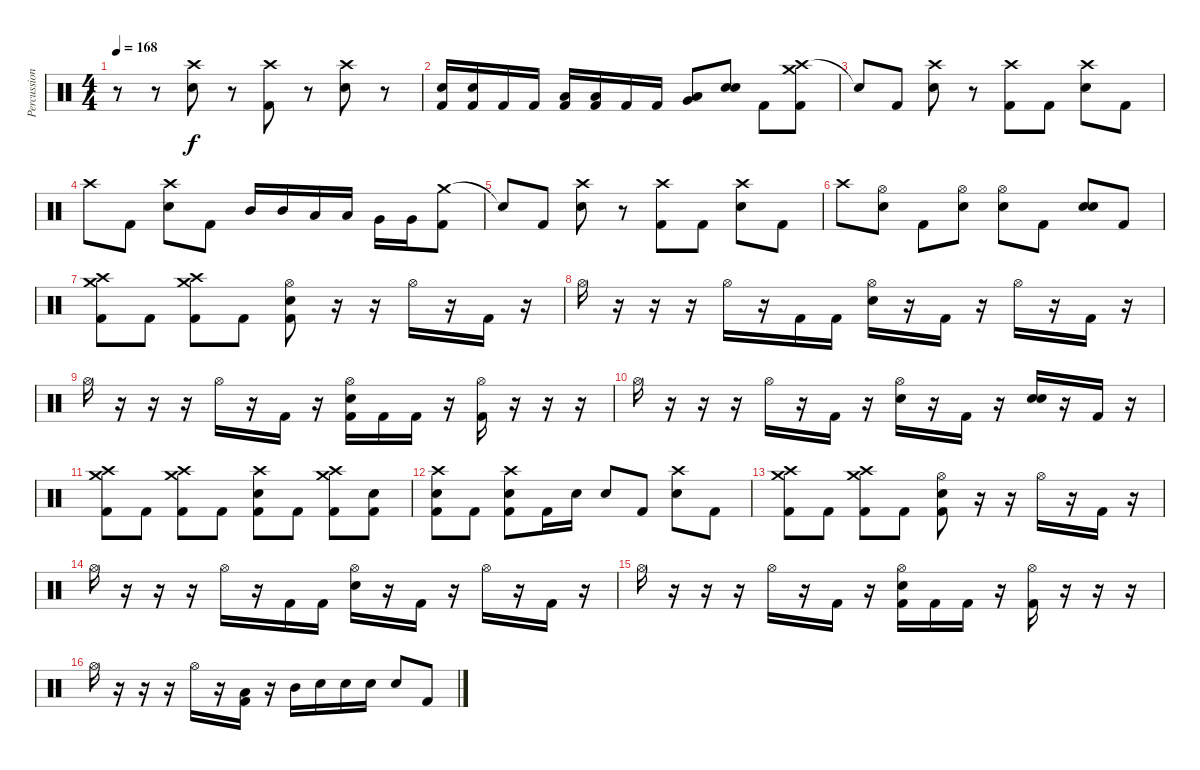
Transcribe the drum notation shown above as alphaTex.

\track ("Percussion" "Percussion") {instrument percussion}
\staff {score}
\articulation defaults
\ts (4 4)
\tempo 168
\clef neutral
\ks c
r.8{dy f} r.8 ("Crash high (hit)" "Electric Snare (hit)").8 r.8 ("Crash high (hit)" "Kick (hit) 2").8 r.8 ("Crash high (hit)" "Electric Snare (hit)").8 r.8 |
("Electric Snare (hit)" "Kick (hit) 2").16 ("Electric Snare (hit)" "Kick (hit) 2").16 "Kick (hit) 2".16 "Kick (hit) 2".16 ("Low Tom (hit)" "Kick (hit) 2").16 ("Low Tom (hit)" "Kick (hit) 2").16 "Kick (hit) 2".16 "Kick (hit) 2".16 ("Low Tom (hit)" "Very Low Tom (hit)").8 ("Electric Snare (hit)" "Electric Snare (hit)").8 "Kick (hit) 2".8 ("Crash high (hit)" "Crash medium (hit)" "Kick (hit) 2").8 |
"Snare (hit)"{t}.8 "Kick (hit) 2".8 ("Crash high (hit)" "Electric Snare (hit)").8 r.8 ("Crash high (hit)" "Kick (hit) 2").8 "Kick (hit) 2".8 ("Crash high (hit)" "Electric Snare (hit)").8 "Kick (hit) 2".8 |
"Crash high (hit)".8 "Kick (hit) 2".8 ("Crash high (hit)" "Electric Snare (hit)").8 "Kick (hit) 2".8 "Mid Tom (hit)".16 "Mid Tom (hit)".16 "Low Tom (hit)".16 "Low Tom (hit)".16 "Very Low Tom (hit)".16 "Very Low Tom (hit)".16 ("Crash medium (hit)" "Kick (hit) 2").8 |
"Snare (hit)"{t}.8 "Kick (hit) 2".8 ("Crash high (hit)" "Electric Snare (hit)").8 r.8 ("Crash high (hit)" "Kick (hit) 2").8 "Kick (hit) 2".8 ("Crash high (hit)" "Electric Snare (hit)").8 "Kick (hit) 2".8 |
"Crash high (hit)".8 ("Hi-Hat (open)" "Electric Snare (hit)").8 "Kick (hit) 2".8 ("Hi-Hat (open)" "Electric Snare (hit)").8 ("Hi-Hat (open)" "Electric Snare (hit)").8 "Kick (hit) 2".8 ("Electric Snare (hit)" "Electric Snare (hit)").8 "Kick (hit) 2".8 |
("Crash high (hit)" "Crash medium (hit)" "Kick (hit) 2").8 "Kick (hit) 2".8 ("Crash high (hit)" "Crash medium (hit)" "Kick (hit) 2").8 "Kick (hit) 2".8 ("Hi-Hat (open)" "Electric Snare (hit)" "Kick (hit) 2").8 r.16 r.16 "Hi-Hat (open)".16 r.16 "Kick (hit) 2".16 r.16 |
"Hi-Hat (open)".16 r.16 r.16 r.16 "Hi-Hat (open)".16 r.16 "Kick (hit) 2".16 "Kick (hit) 2".16 ("Hi-Hat (open)" "Electric Snare (hit)").16 r.16 "Kick (hit) 2".16 r.16 "Hi-Hat (open)".16 r.16 "Kick (hit) 2".16 r.16 |
"Hi-Hat (open)".16 r.16 r.16 r.16 "Hi-Hat (open)".16 r.16 "Kick (hit) 2".16 r.16 ("Hi-Hat (open)" "Electric Snare (hit)" "Kick (hit) 2").16 "Kick (hit) 2".16 "Kick (hit) 2".16 r.16 ("Hi-Hat (open)" "Kick (hit) 2").16 r.16 r.16 r.16 |
"Hi-Hat (open)".16 r.16 r.16 r.16 "Hi-Hat (open)".16 r.16 "Kick (hit) 2".16 r.16 ("Hi-Hat (open)" "Electric Snare (hit)").16 r.16 "Kick (hit) 2".16 r.16 ("Electric Snare (hit)" "Electric Snare (hit)").16 r.16 "Kick (hit) 2".16 r.16 |
("Crash high (hit)" "Crash medium (hit)" "Kick (hit) 2").8 "Kick (hit) 2".8 ("Crash high (hit)" "Crash medium (hit)" "Kick (hit) 2").8 "Kick (hit) 2".8 ("Crash high (hit)" "Electric Snare (hit)" "Kick (hit) 2").8 "Kick (hit) 2".8 ("Crash high (hit)" "Crash medium (hit)" "Kick (hit) 2").8 ("Electric Snare (hit)" "Kick (hit) 2").8 |
("Crash high (hit)" "Electric Snare (hit)" "Kick (hit) 2").8 "Kick (hit) 2".8 ("Crash high (hit)" "Electric Snare (hit)" "Kick (hit) 2").8 "Kick (hit) 2".16 "Electric Snare (hit)".16 "Electric Snare (hit)".8 "Kick (hit) 2".8 ("Crash high (hit)" "Electric Snare (hit)").8 "Kick (hit) 2".8 |
("Crash high (hit)" "Crash medium (hit)" "Kick (hit) 2").8 "Kick (hit) 2".8 ("Crash high (hit)" "Crash medium (hit)" "Kick (hit) 2").8 "Kick (hit) 2".8 ("Hi-Hat (open)" "Electric Snare (hit)" "Kick (hit) 2").8 r.16 r.16 "Hi-Hat (open)".16 r.16 "Kick (hit) 2".16 r.16 |
"Hi-Hat (open)".16 r.16 r.16 r.16 "Hi-Hat (open)".16 r.16 "Kick (hit) 2".16 "Kick (hit) 2".16 ("Hi-Hat (open)" "Electric Snare (hit)").16 r.16 "Kick (hit) 2".16 r.16 "Hi-Hat (open)".16 r.16 "Kick (hit) 2".16 r.16 |
"Hi-Hat (open)".16 r.16 r.16 r.16 "Hi-Hat (open)".16 r.16 "Kick (hit) 2".16 r.16 ("Hi-Hat (open)" "Electric Snare (hit)" "Kick (hit) 2").16 "Kick (hit) 2".16 "Kick (hit) 2".16 r.16 ("Hi-Hat (open)" "Kick (hit) 2").16 r.16 r.16 r.16 |
"Hi-Hat (open)".16 r.16 r.16 r.16 "Hi-Hat (open)".16 r.16 ("Low Tom (hit)" "Kick (hit) 2").16 r.16 "Mid Tom (hit)".16 "Electric Snare (hit)".16 "Electric Snare (hit)".16 "Electric Snare (hit)".16 "Electric Snare (hit)".8 "Kick (hit) 2".8
